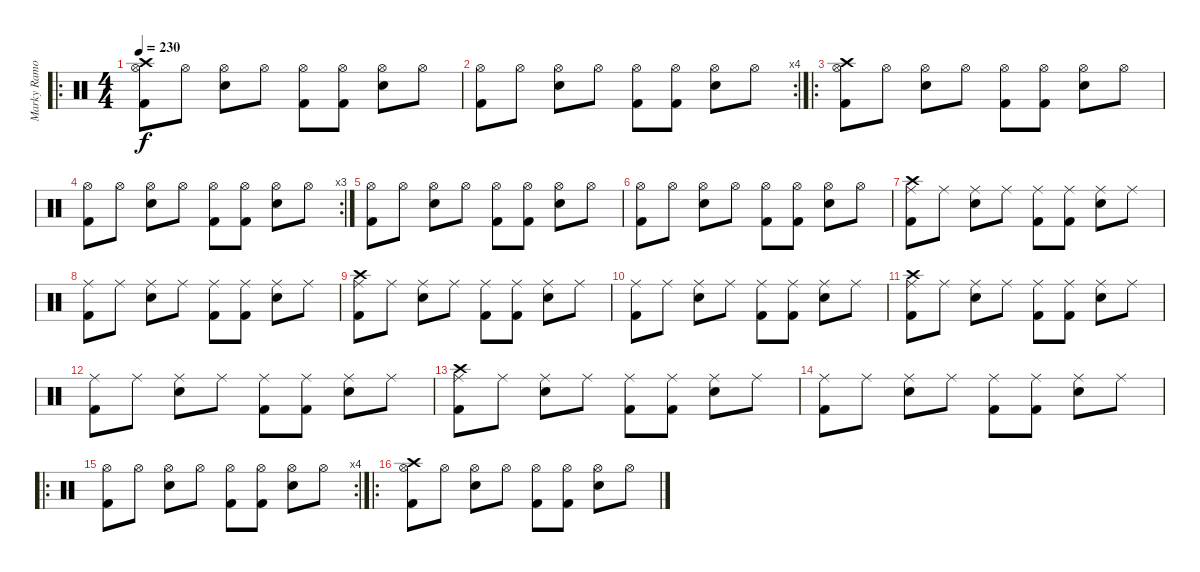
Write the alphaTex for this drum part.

\track ("Marky Ramone" "Marky Ramo") {instrument percussion}
\staff {score}
\articulation defaults
\ro
\ts (4 4)
\tempo 230
\clef neutral
\ks c
("Hi-Hat (open)" "Kick (hit) 2" "Crash high (hit)").8{dy f} "Hi-Hat (open)".8 ("Hi-Hat (open)" "Electric Snare (hit)").8 "Hi-Hat (open)".8 ("Hi-Hat (open)" "Kick (hit) 2").8 ("Hi-Hat (open)" "Kick (hit) 2").8 ("Hi-Hat (open)" "Electric Snare (hit)").8 "Hi-Hat (open)".8 |
\rc 4
("Hi-Hat (open)" "Kick (hit) 2").8 "Hi-Hat (open)".8 ("Hi-Hat (open)" "Electric Snare (hit)").8 "Hi-Hat (open)".8 ("Hi-Hat (open)" "Kick (hit) 2").8 ("Hi-Hat (open)" "Kick (hit) 2").8 ("Hi-Hat (open)" "Electric Snare (hit)").8 "Hi-Hat (open)".8 |
\ro
("Hi-Hat (open)" "Kick (hit) 2" "Crash high (hit)").8 "Hi-Hat (open)".8 ("Hi-Hat (open)" "Electric Snare (hit)").8 "Hi-Hat (open)".8 ("Hi-Hat (open)" "Kick (hit) 2").8 ("Hi-Hat (open)" "Kick (hit) 2").8 ("Hi-Hat (open)" "Electric Snare (hit)").8 "Hi-Hat (open)".8 |
\rc 3
("Hi-Hat (open)" "Kick (hit) 2").8 "Hi-Hat (open)".8 ("Hi-Hat (open)" "Electric Snare (hit)").8 "Hi-Hat (open)".8 ("Hi-Hat (open)" "Kick (hit) 2").8 ("Hi-Hat (open)" "Kick (hit) 2").8 ("Hi-Hat (open)" "Electric Snare (hit)").8 "Hi-Hat (open)".8 |
("Hi-Hat (open)" "Kick (hit) 2").8 "Hi-Hat (open)".8 ("Hi-Hat (open)" "Electric Snare (hit)").8 "Hi-Hat (open)".8 ("Hi-Hat (open)" "Kick (hit) 2").8 ("Hi-Hat (open)" "Kick (hit) 2").8 ("Hi-Hat (open)" "Electric Snare (hit)").8 "Hi-Hat (open)".8 |
("Hi-Hat (open)" "Kick (hit) 2").8 "Hi-Hat (open)".8 ("Hi-Hat (open)" "Electric Snare (hit)").8 "Hi-Hat (open)".8 ("Hi-Hat (open)" "Kick (hit) 2").8 ("Hi-Hat (open)" "Kick (hit) 2").8 ("Hi-Hat (open)" "Electric Snare (hit)").8 "Hi-Hat (open)".8 |
("Ride (middle)" "Kick (hit) 2" "Crash high (hit)").8 "Ride (middle)".8 ("Ride (middle)" "Electric Snare (hit)").8 "Ride (middle)".8 ("Ride (middle)" "Kick (hit) 2").8 ("Ride (middle)" "Kick (hit) 2").8 ("Ride (middle)" "Electric Snare (hit)").8 "Ride (middle)".8 |
("Ride (middle)" "Kick (hit) 2").8 "Ride (middle)".8 ("Ride (middle)" "Electric Snare (hit)").8 "Ride (middle)".8 ("Ride (middle)" "Kick (hit) 2").8 ("Ride (middle)" "Kick (hit) 2").8 ("Ride (middle)" "Electric Snare (hit)").8 "Ride (middle)".8 |
("Ride (middle)" "Kick (hit) 2" "Crash high (hit)").8 "Ride (middle)".8 ("Ride (middle)" "Electric Snare (hit)").8 "Ride (middle)".8 ("Ride (middle)" "Kick (hit) 2").8 ("Ride (middle)" "Kick (hit) 2").8 ("Ride (middle)" "Electric Snare (hit)").8 "Ride (middle)".8 |
("Ride (middle)" "Kick (hit) 2").8 "Ride (middle)".8 ("Ride (middle)" "Electric Snare (hit)").8 "Ride (middle)".8 ("Ride (middle)" "Kick (hit) 2").8 ("Ride (middle)" "Kick (hit) 2").8 ("Ride (middle)" "Electric Snare (hit)").8 "Ride (middle)".8 |
("Ride (middle)" "Kick (hit) 2" "Crash high (hit)").8 "Ride (middle)".8 ("Ride (middle)" "Electric Snare (hit)").8 "Ride (middle)".8 ("Ride (middle)" "Kick (hit) 2").8 ("Ride (middle)" "Kick (hit) 2").8 ("Ride (middle)" "Electric Snare (hit)").8 "Ride (middle)".8 |
("Ride (middle)" "Kick (hit) 2").8 "Ride (middle)".8 ("Ride (middle)" "Electric Snare (hit)").8 "Ride (middle)".8 ("Ride (middle)" "Kick (hit) 2").8 ("Ride (middle)" "Kick (hit) 2").8 ("Ride (middle)" "Electric Snare (hit)").8 "Ride (middle)".8 |
("Ride (middle)" "Kick (hit) 2" "Crash high (hit)").8 "Ride (middle)".8 ("Ride (middle)" "Electric Snare (hit)").8 "Ride (middle)".8 ("Ride (middle)" "Kick (hit) 2").8 ("Ride (middle)" "Kick (hit) 2").8 ("Ride (middle)" "Electric Snare (hit)").8 "Ride (middle)".8 |
("Ride (middle)" "Kick (hit) 2").8 "Ride (middle)".8 ("Ride (middle)" "Electric Snare (hit)").8 "Ride (middle)".8 ("Ride (middle)" "Kick (hit) 2").8 ("Ride (middle)" "Kick (hit) 2").8 ("Ride (middle)" "Electric Snare (hit)").8 "Ride (middle)".8 |
\ro
\rc 4
("Hi-Hat (open)" "Kick (hit) 2").8 "Hi-Hat (open)".8 ("Hi-Hat (open)" "Electric Snare (hit)").8 "Hi-Hat (open)".8 ("Hi-Hat (open)" "Kick (hit) 2").8 ("Hi-Hat (open)" "Kick (hit) 2").8 ("Hi-Hat (open)" "Electric Snare (hit)").8 "Hi-Hat (open)".8 |
\ro
("Hi-Hat (open)" "Kick (hit) 2" "Crash high (hit)").8 "Hi-Hat (open)".8 ("Hi-Hat (open)" "Electric Snare (hit)").8 "Hi-Hat (open)".8 ("Hi-Hat (open)" "Kick (hit) 2").8 ("Hi-Hat (open)" "Kick (hit) 2").8 ("Hi-Hat (open)" "Electric Snare (hit)").8 "Hi-Hat (open)".8
